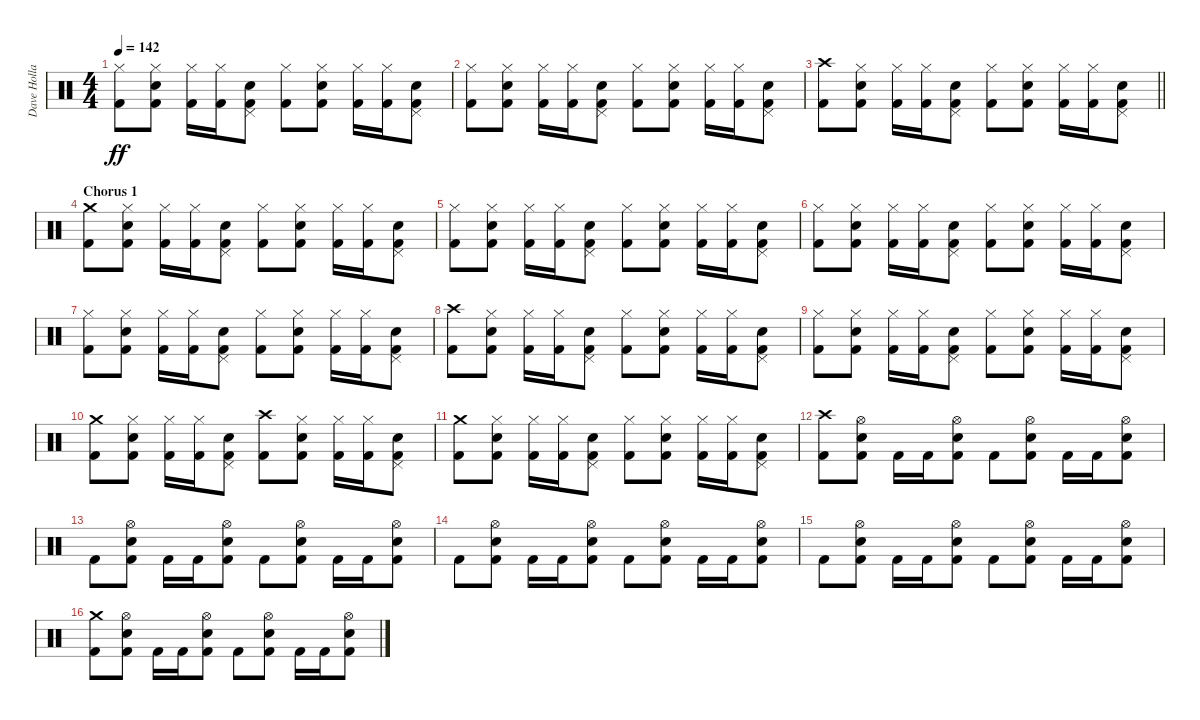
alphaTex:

\track ("Dave Holland" "Dave Holla") {instrument percussion}
\staff {score}
\articulation defaults
\ts (4 4)
\tempo 142
\clef neutral
\ks c
("Hi-Hat (closed)" "Kick (hit) 2").8{dy ff} ("Hi-Hat (closed)" "Snare (hit) 2" "Kick (hit) 2").8 ("Hi-Hat (closed)" "Kick (hit) 2").16 ("Hi-Hat (closed)" "Kick (hit) 2").16 ("Pedal Hi-Hat (hit)" "Snare (hit) 2" "Kick (hit) 2").8 ("Hi-Hat (closed)" "Kick (hit) 2").8 ("Hi-Hat (closed)" "Snare (hit) 2" "Kick (hit) 2").8 ("Hi-Hat (closed)" "Kick (hit) 2").16 ("Hi-Hat (closed)" "Kick (hit) 2").16 ("Pedal Hi-Hat (hit)" "Snare (hit) 2" "Kick (hit) 2").8 |
("Hi-Hat (closed)" "Kick (hit) 2").8 ("Hi-Hat (closed)" "Snare (hit) 2" "Kick (hit) 2").8 ("Hi-Hat (closed)" "Kick (hit) 2").16 ("Hi-Hat (closed)" "Kick (hit) 2").16 ("Pedal Hi-Hat (hit)" "Snare (hit) 2" "Kick (hit) 2").8 ("Hi-Hat (closed)" "Kick (hit) 2").8 ("Hi-Hat (closed)" "Snare (hit) 2" "Kick (hit) 2").8 ("Hi-Hat (closed)" "Kick (hit) 2").16 ("Hi-Hat (closed)" "Kick (hit) 2").16 ("Pedal Hi-Hat (hit)" "Snare (hit) 2" "Kick (hit) 2").8 |
\barLineRight lightlight
("Crash high (hit)" "Kick (hit) 2").8 ("Hi-Hat (closed)" "Snare (hit) 2" "Kick (hit) 2").8 ("Hi-Hat (closed)" "Kick (hit) 2").16 ("Hi-Hat (closed)" "Kick (hit) 2").16 ("Pedal Hi-Hat (hit)" "Snare (hit) 2" "Kick (hit) 2").8 ("Hi-Hat (closed)" "Kick (hit) 2").8 ("Hi-Hat (closed)" "Snare (hit) 2" "Kick (hit) 2").8 ("Hi-Hat (closed)" "Kick (hit) 2").16 ("Hi-Hat (closed)" "Kick (hit) 2").16 ("Pedal Hi-Hat (hit)" "Snare (hit) 2" "Kick (hit) 2").8 |
\section ("" "Chorus 1")
("Crash medium (hit)" "Kick (hit) 2").8 ("Hi-Hat (closed)" "Snare (hit) 2" "Kick (hit) 2").8 ("Hi-Hat (closed)" "Kick (hit) 2").16 ("Hi-Hat (closed)" "Kick (hit) 2").16 ("Pedal Hi-Hat (hit)" "Snare (hit) 2" "Kick (hit) 2").8 ("Hi-Hat (closed)" "Kick (hit) 2").8 ("Hi-Hat (closed)" "Snare (hit) 2" "Kick (hit) 2").8 ("Hi-Hat (closed)" "Kick (hit) 2").16 ("Hi-Hat (closed)" "Kick (hit) 2").16 ("Pedal Hi-Hat (hit)" "Snare (hit) 2" "Kick (hit) 2").8 |
("Hi-Hat (closed)" "Kick (hit) 2").8 ("Hi-Hat (closed)" "Snare (hit) 2" "Kick (hit) 2").8 ("Hi-Hat (closed)" "Kick (hit) 2").16 ("Hi-Hat (closed)" "Kick (hit) 2").16 ("Pedal Hi-Hat (hit)" "Snare (hit) 2" "Kick (hit) 2").8 ("Hi-Hat (closed)" "Kick (hit) 2").8 ("Hi-Hat (closed)" "Snare (hit) 2" "Kick (hit) 2").8 ("Hi-Hat (closed)" "Kick (hit) 2").16 ("Hi-Hat (closed)" "Kick (hit) 2").16 ("Pedal Hi-Hat (hit)" "Snare (hit) 2" "Kick (hit) 2").8 |
("Hi-Hat (closed)" "Kick (hit) 2").8 ("Hi-Hat (closed)" "Snare (hit) 2" "Kick (hit) 2").8 ("Hi-Hat (closed)" "Kick (hit) 2").16 ("Hi-Hat (closed)" "Kick (hit) 2").16 ("Pedal Hi-Hat (hit)" "Snare (hit) 2" "Kick (hit) 2").8 ("Hi-Hat (closed)" "Kick (hit) 2").8 ("Hi-Hat (closed)" "Snare (hit) 2" "Kick (hit) 2").8 ("Hi-Hat (closed)" "Kick (hit) 2").16 ("Hi-Hat (closed)" "Kick (hit) 2").16 ("Pedal Hi-Hat (hit)" "Snare (hit) 2" "Kick (hit) 2").8 |
("Hi-Hat (closed)" "Kick (hit) 2").8 ("Hi-Hat (closed)" "Snare (hit) 2" "Kick (hit) 2").8 ("Hi-Hat (closed)" "Kick (hit) 2").16 ("Hi-Hat (closed)" "Kick (hit) 2").16 ("Pedal Hi-Hat (hit)" "Snare (hit) 2" "Kick (hit) 2").8 ("Hi-Hat (closed)" "Kick (hit) 2").8 ("Hi-Hat (closed)" "Snare (hit) 2" "Kick (hit) 2").8 ("Hi-Hat (closed)" "Kick (hit) 2").16 ("Hi-Hat (closed)" "Kick (hit) 2").16 ("Pedal Hi-Hat (hit)" "Snare (hit) 2" "Kick (hit) 2").8 |
("Crash high (hit)" "Kick (hit) 2").8 ("Hi-Hat (closed)" "Snare (hit) 2" "Kick (hit) 2").8 ("Hi-Hat (closed)" "Kick (hit) 2").16 ("Hi-Hat (closed)" "Kick (hit) 2").16 ("Pedal Hi-Hat (hit)" "Snare (hit) 2" "Kick (hit) 2").8 ("Hi-Hat (closed)" "Kick (hit) 2").8 ("Hi-Hat (closed)" "Snare (hit) 2" "Kick (hit) 2").8 ("Hi-Hat (closed)" "Kick (hit) 2").16 ("Hi-Hat (closed)" "Kick (hit) 2").16 ("Pedal Hi-Hat (hit)" "Snare (hit) 2" "Kick (hit) 2").8 |
("Hi-Hat (closed)" "Kick (hit) 2").8 ("Hi-Hat (closed)" "Snare (hit) 2" "Kick (hit) 2").8 ("Hi-Hat (closed)" "Kick (hit) 2").16 ("Hi-Hat (closed)" "Kick (hit) 2").16 ("Pedal Hi-Hat (hit)" "Snare (hit) 2" "Kick (hit) 2").8 ("Hi-Hat (closed)" "Kick (hit) 2").8 ("Hi-Hat (closed)" "Snare (hit) 2" "Kick (hit) 2").8 ("Hi-Hat (closed)" "Kick (hit) 2").16 ("Hi-Hat (closed)" "Kick (hit) 2").16 ("Pedal Hi-Hat (hit)" "Snare (hit) 2" "Kick (hit) 2").8 |
("Crash medium (hit)" "Kick (hit) 2").8 ("Hi-Hat (closed)" "Snare (hit) 2" "Kick (hit) 2").8 ("Hi-Hat (closed)" "Kick (hit) 2").16 ("Hi-Hat (closed)" "Kick (hit) 2").16 ("Pedal Hi-Hat (hit)" "Snare (hit) 2" "Kick (hit) 2").8 ("Crash high (hit)" "Kick (hit) 2").8 ("Hi-Hat (closed)" "Snare (hit) 2" "Kick (hit) 2").8 ("Hi-Hat (closed)" "Kick (hit) 2").16 ("Hi-Hat (closed)" "Kick (hit) 2").16 ("Pedal Hi-Hat (hit)" "Snare (hit) 2" "Kick (hit) 2").8 |
("Crash medium (hit)" "Kick (hit) 2").8 ("Hi-Hat (closed)" "Snare (hit) 2" "Kick (hit) 2").8 ("Hi-Hat (closed)" "Kick (hit) 2").16 ("Hi-Hat (closed)" "Kick (hit) 2").16 ("Pedal Hi-Hat (hit)" "Snare (hit) 2" "Kick (hit) 2").8 ("Hi-Hat (closed)" "Kick (hit) 2").8 ("Hi-Hat (closed)" "Snare (hit) 2" "Kick (hit) 2").8 ("Hi-Hat (closed)" "Kick (hit) 2").16 ("Hi-Hat (closed)" "Kick (hit) 2").16 ("Pedal Hi-Hat (hit)" "Snare (hit) 2" "Kick (hit) 2").8 |
("Crash high (hit)" "Kick (hit) 2").8 ("Hi-Hat (open)" "Snare (hit) 2" "Kick (hit) 2").8 "Kick (hit) 2".16 "Kick (hit) 2".16 ("Hi-Hat (open)" "Snare (hit) 2" "Kick (hit) 2").8 "Kick (hit) 2".8 ("Hi-Hat (open)" "Snare (hit) 2" "Kick (hit) 2").8 "Kick (hit) 2".16 "Kick (hit) 2".16 ("Hi-Hat (open)" "Snare (hit) 2" "Kick (hit) 2").8 |
"Kick (hit) 2".8 ("Hi-Hat (open)" "Snare (hit) 2" "Kick (hit) 2").8 "Kick (hit) 2".16 "Kick (hit) 2".16 ("Hi-Hat (open)" "Snare (hit) 2" "Kick (hit) 2").8 "Kick (hit) 2".8 ("Hi-Hat (open)" "Snare (hit) 2" "Kick (hit) 2").8 "Kick (hit) 2".16 "Kick (hit) 2".16 ("Hi-Hat (open)" "Snare (hit) 2" "Kick (hit) 2").8 |
"Kick (hit) 2".8 ("Hi-Hat (open)" "Snare (hit) 2" "Kick (hit) 2").8 "Kick (hit) 2".16 "Kick (hit) 2".16 ("Hi-Hat (open)" "Snare (hit) 2" "Kick (hit) 2").8 "Kick (hit) 2".8 ("Hi-Hat (open)" "Snare (hit) 2" "Kick (hit) 2").8 "Kick (hit) 2".16 "Kick (hit) 2".16 ("Hi-Hat (open)" "Snare (hit) 2" "Kick (hit) 2").8 |
"Kick (hit) 2".8 ("Hi-Hat (open)" "Snare (hit) 2" "Kick (hit) 2").8 "Kick (hit) 2".16 "Kick (hit) 2".16 ("Hi-Hat (open)" "Snare (hit) 2" "Kick (hit) 2").8 "Kick (hit) 2".8 ("Hi-Hat (open)" "Snare (hit) 2" "Kick (hit) 2").8 "Kick (hit) 2".16 "Kick (hit) 2".16 ("Hi-Hat (open)" "Snare (hit) 2" "Kick (hit) 2").8 |
("Crash medium (hit)" "Kick (hit) 2").8 ("Hi-Hat (open)" "Snare (hit) 2" "Kick (hit) 2").8 "Kick (hit) 2".16 "Kick (hit) 2".16 ("Hi-Hat (open)" "Snare (hit) 2" "Kick (hit) 2").8 "Kick (hit) 2".8 ("Hi-Hat (open)" "Snare (hit) 2" "Kick (hit) 2").8 "Kick (hit) 2".16 "Kick (hit) 2".16 ("Hi-Hat (open)" "Snare (hit) 2" "Kick (hit) 2").8
